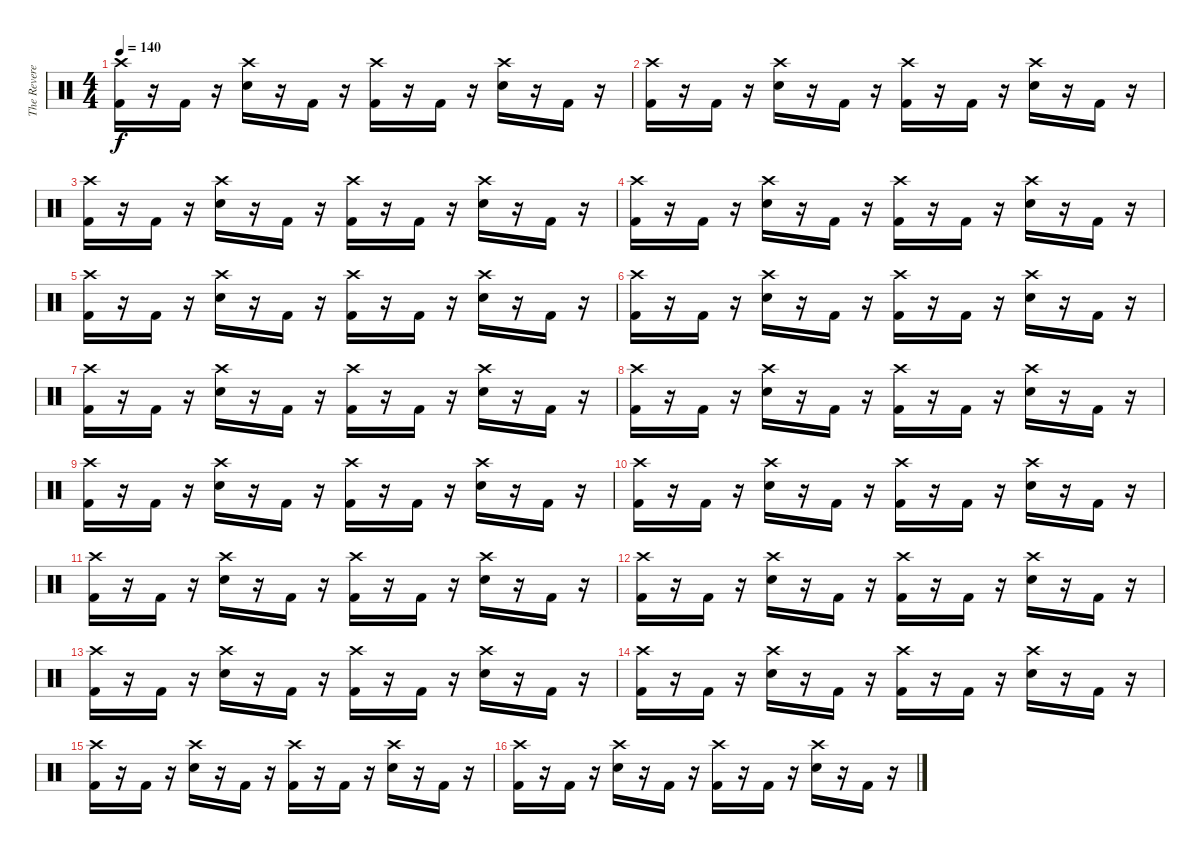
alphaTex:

\track ("The Reverend" "The Revere") {instrument percussion}
\staff {score}
\articulation defaults
\ts (4 4)
\tempo 140
\clef neutral
\ks c
("Crash high (hit)" "Kick (hit) 2").16{dy f} r.16 "Kick (hit) 2".16 r.16 ("Crash high (hit)" "Electric Snare (hit)").16 r.16 "Kick (hit) 2".16 r.16 ("Crash high (hit)" "Kick (hit) 2").16 r.16 "Kick (hit) 2".16 r.16 ("Crash high (hit)" "Electric Snare (hit)").16 r.16 "Kick (hit) 2".16 r.16 |
("Crash high (hit)" "Kick (hit) 2").16 r.16 "Kick (hit) 2".16 r.16 ("Crash high (hit)" "Electric Snare (hit)").16 r.16 "Kick (hit) 2".16 r.16 ("Crash high (hit)" "Kick (hit) 2").16 r.16 "Kick (hit) 2".16 r.16 ("Crash high (hit)" "Electric Snare (hit)").16 r.16 "Kick (hit) 2".16 r.16 |
("Crash high (hit)" "Kick (hit) 2").16 r.16 "Kick (hit) 2".16 r.16 ("Crash high (hit)" "Electric Snare (hit)").16 r.16 "Kick (hit) 2".16 r.16 ("Crash high (hit)" "Kick (hit) 2").16 r.16 "Kick (hit) 2".16 r.16 ("Crash high (hit)" "Electric Snare (hit)").16 r.16 "Kick (hit) 2".16 r.16 |
("Crash high (hit)" "Kick (hit) 2").16 r.16 "Kick (hit) 2".16 r.16 ("Crash high (hit)" "Electric Snare (hit)").16 r.16 "Kick (hit) 2".16 r.16 ("Crash high (hit)" "Kick (hit) 2").16 r.16 "Kick (hit) 2".16 r.16 ("Crash high (hit)" "Electric Snare (hit)").16 r.16 "Kick (hit) 2".16 r.16 |
("Crash high (hit)" "Kick (hit) 2").16 r.16 "Kick (hit) 2".16 r.16 ("Crash high (hit)" "Electric Snare (hit)").16 r.16 "Kick (hit) 2".16 r.16 ("Crash high (hit)" "Kick (hit) 2").16 r.16 "Kick (hit) 2".16 r.16 ("Crash high (hit)" "Electric Snare (hit)").16 r.16 "Kick (hit) 2".16 r.16 |
("Crash high (hit)" "Kick (hit) 2").16 r.16 "Kick (hit) 2".16 r.16 ("Crash high (hit)" "Electric Snare (hit)").16 r.16 "Kick (hit) 2".16 r.16 ("Crash high (hit)" "Kick (hit) 2").16 r.16 "Kick (hit) 2".16 r.16 ("Crash high (hit)" "Electric Snare (hit)").16 r.16 "Kick (hit) 2".16 r.16 |
("Crash high (hit)" "Kick (hit) 2").16 r.16 "Kick (hit) 2".16 r.16 ("Crash high (hit)" "Electric Snare (hit)").16 r.16 "Kick (hit) 2".16 r.16 ("Crash high (hit)" "Kick (hit) 2").16 r.16 "Kick (hit) 2".16 r.16 ("Crash high (hit)" "Electric Snare (hit)").16 r.16 "Kick (hit) 2".16 r.16 |
("Crash high (hit)" "Kick (hit) 2").16 r.16 "Kick (hit) 2".16 r.16 ("Crash high (hit)" "Electric Snare (hit)").16 r.16 "Kick (hit) 2".16 r.16 ("Crash high (hit)" "Kick (hit) 2").16 r.16 "Kick (hit) 2".16 r.16 ("Crash high (hit)" "Electric Snare (hit)").16 r.16 "Kick (hit) 2".16 r.16 |
("Crash high (hit)" "Kick (hit) 2").16 r.16 "Kick (hit) 2".16 r.16 ("Crash high (hit)" "Electric Snare (hit)").16 r.16 "Kick (hit) 2".16 r.16 ("Crash high (hit)" "Kick (hit) 2").16 r.16 "Kick (hit) 2".16 r.16 ("Crash high (hit)" "Electric Snare (hit)").16 r.16 "Kick (hit) 2".16 r.16 |
("Crash high (hit)" "Kick (hit) 2").16 r.16 "Kick (hit) 2".16 r.16 ("Crash high (hit)" "Electric Snare (hit)").16 r.16 "Kick (hit) 2".16 r.16 ("Crash high (hit)" "Kick (hit) 2").16 r.16 "Kick (hit) 2".16 r.16 ("Crash high (hit)" "Electric Snare (hit)").16 r.16 "Kick (hit) 2".16 r.16 |
("Crash high (hit)" "Kick (hit) 2").16 r.16 "Kick (hit) 2".16 r.16 ("Crash high (hit)" "Electric Snare (hit)").16 r.16 "Kick (hit) 2".16 r.16 ("Crash high (hit)" "Kick (hit) 2").16 r.16 "Kick (hit) 2".16 r.16 ("Crash high (hit)" "Electric Snare (hit)").16 r.16 "Kick (hit) 2".16 r.16 |
("Crash high (hit)" "Kick (hit) 2").16 r.16 "Kick (hit) 2".16 r.16 ("Crash high (hit)" "Electric Snare (hit)").16 r.16 "Kick (hit) 2".16 r.16 ("Crash high (hit)" "Kick (hit) 2").16 r.16 "Kick (hit) 2".16 r.16 ("Crash high (hit)" "Electric Snare (hit)").16 r.16 "Kick (hit) 2".16 r.16 |
("Crash high (hit)" "Kick (hit) 2").16 r.16 "Kick (hit) 2".16 r.16 ("Crash high (hit)" "Electric Snare (hit)").16 r.16 "Kick (hit) 2".16 r.16 ("Crash high (hit)" "Kick (hit) 2").16 r.16 "Kick (hit) 2".16 r.16 ("Crash high (hit)" "Electric Snare (hit)").16 r.16 "Kick (hit) 2".16 r.16 |
("Crash high (hit)" "Kick (hit) 2").16 r.16 "Kick (hit) 2".16 r.16 ("Crash high (hit)" "Electric Snare (hit)").16 r.16 "Kick (hit) 2".16 r.16 ("Crash high (hit)" "Kick (hit) 2").16 r.16 "Kick (hit) 2".16 r.16 ("Crash high (hit)" "Electric Snare (hit)").16 r.16 "Kick (hit) 2".16 r.16 |
("Crash high (hit)" "Kick (hit) 2").16 r.16 "Kick (hit) 2".16 r.16 ("Crash high (hit)" "Electric Snare (hit)").16 r.16 "Kick (hit) 2".16 r.16 ("Crash high (hit)" "Kick (hit) 2").16 r.16 "Kick (hit) 2".16 r.16 ("Crash high (hit)" "Electric Snare (hit)").16 r.16 "Kick (hit) 2".16 r.16 |
("Crash high (hit)" "Kick (hit) 2").16 r.16 "Kick (hit) 2".16 r.16 ("Crash high (hit)" "Electric Snare (hit)").16 r.16 "Kick (hit) 2".16 r.16 ("Crash high (hit)" "Kick (hit) 2").16 r.16 "Kick (hit) 2".16 r.16 ("Crash high (hit)" "Electric Snare (hit)").16 r.16 "Kick (hit) 2".16 r.16
